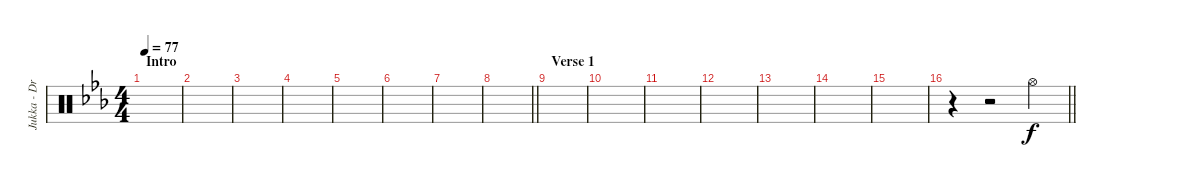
\track ("Jukka - Drums" "Jukka - Dr") {instrument percussion}
\staff {score}
\articulation defaults
\ts (4 4)
\section ("" "Intro")
\tempo 77
\clef neutral
\ks cminor
|
|
|
|
|
|
|
\barLineRight lightlight
|
\section ("" "Verse 1")
|
|
|
|
|
|
|
\barLineRight lightlight
r.4 r.2 "Hi-Hat (open)".4
